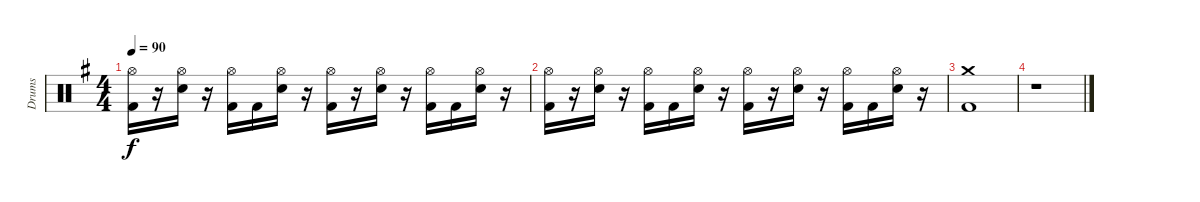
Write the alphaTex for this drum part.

\track ("Drums" "Drums") {instrument percussion}
\staff {score}
\articulation defaults
\ts (4 4)
\tempo 90
\clef neutral
\ks eminor
("Kick (hit) 2" "Hi-Hat (open)").16{dy f} r.16 ("Electric Snare (hit)" "Hi-Hat (open)").16 r.16 ("Kick (hit) 2" "Hi-Hat (open)").16 "Kick (hit) 2".16 ("Electric Snare (hit)" "Hi-Hat (open)").16 r.16 ("Kick (hit) 2" "Hi-Hat (open)").16 r.16 ("Electric Snare (hit)" "Hi-Hat (open)").16 r.16 ("Kick (hit) 2" "Hi-Hat (open)").16 "Kick (hit) 2".16 ("Electric Snare (hit)" "Hi-Hat (open)").16 r.16 |
("Kick (hit) 2" "Hi-Hat (open)").16 r.16 ("Electric Snare (hit)" "Hi-Hat (open)").16 r.16 ("Kick (hit) 2" "Hi-Hat (open)").16 "Kick (hit) 2".16 ("Electric Snare (hit)" "Hi-Hat (open)").16 r.16 ("Kick (hit) 2" "Hi-Hat (open)").16 r.16 ("Electric Snare (hit)" "Hi-Hat (open)").16 r.16 ("Kick (hit) 2" "Hi-Hat (open)").16 "Kick (hit) 2".16 ("Electric Snare (hit)" "Hi-Hat (open)").16 r.16 |
("Kick (hit) 2" "Crash medium (hit)").1 |
r.1
